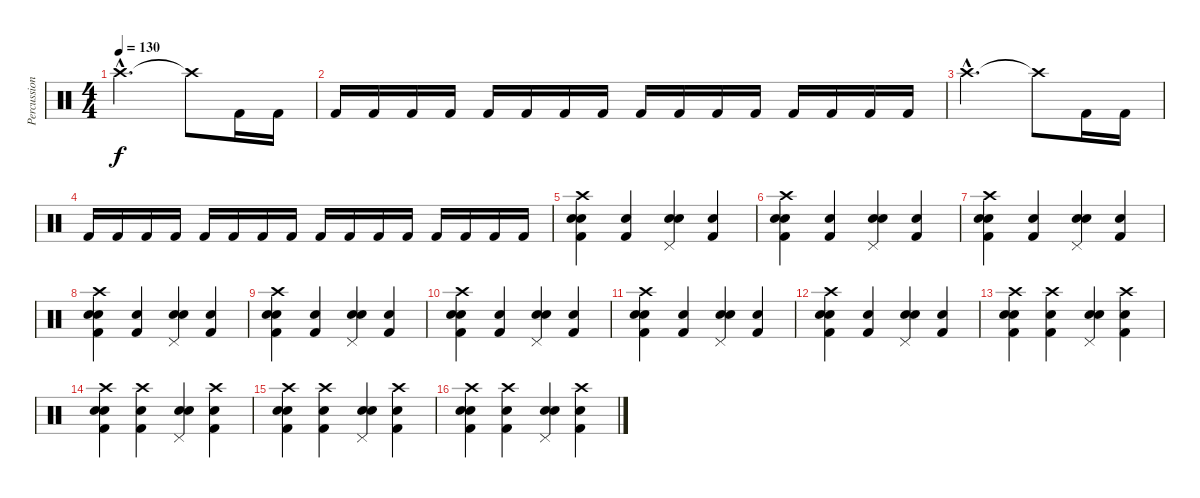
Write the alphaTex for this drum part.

\track ("Percussion" "Percussion") {instrument percussion}
\staff {score}
\articulation defaults
\ts (4 4)
\tempo 130
\clef neutral
\ks c "Crash high (hit)"{hac}.2{d dy f} "Crash high (hit)"{t}.8 "Kick (hit) 2".16 "Kick (hit) 2".16
|
"Kick (hit) 2".16 "Kick (hit) 2".16 "Kick (hit) 2".16 "Kick (hit) 2".16 "Kick (hit) 2".16 "Kick (hit) 2".16 "Kick (hit) 2".16 "Kick (hit) 2".16 "Kick (hit) 2".16 "Kick (hit) 2".16 "Kick (hit) 2".16 "Kick (hit) 2".16 "Kick (hit) 2".16 "Kick (hit) 2".16 "Kick (hit) 2".16 "Kick (hit) 2".16 |
"Crash high (hit)"{hac}.2{d} "Crash high (hit)"{t}.8 "Kick (hit) 2".16 "Kick (hit) 2".16 |
"Kick (hit) 2".16 "Kick (hit) 2".16 "Kick (hit) 2".16 "Kick (hit) 2".16 "Kick (hit) 2".16 "Kick (hit) 2".16 "Kick (hit) 2".16 "Kick (hit) 2".16 "Kick (hit) 2".16 "Kick (hit) 2".16 "Kick (hit) 2".16 "Kick (hit) 2".16 "Kick (hit) 2".16 "Kick (hit) 2".16 "Kick (hit) 2".16 "Kick (hit) 2".16 |
("Crash high (hit)" "Snare (hit) 2" "Kick (hit) 2" "Snare (hit) 2").4 ("Kick (hit) 2" "Snare (hit) 2").4 ("Pedal Hi-Hat (hit)" "Snare (hit) 2" "Snare (hit) 2").4 ("Snare (hit) 2" "Kick (hit) 2").4 |
("Crash high (hit)" "Snare (hit) 2" "Kick (hit) 2" "Snare (hit) 2").4 ("Kick (hit) 2" "Snare (hit) 2").4 ("Pedal Hi-Hat (hit)" "Snare (hit) 2" "Snare (hit) 2").4 ("Snare (hit) 2" "Kick (hit) 2").4 |
("Crash high (hit)" "Snare (hit) 2" "Kick (hit) 2" "Snare (hit) 2").4 ("Kick (hit) 2" "Snare (hit) 2").4 ("Pedal Hi-Hat (hit)" "Snare (hit) 2" "Snare (hit) 2").4 ("Snare (hit) 2" "Kick (hit) 2").4 |
("Crash high (hit)" "Snare (hit) 2" "Kick (hit) 2" "Snare (hit) 2").4 ("Kick (hit) 2" "Snare (hit) 2").4 ("Pedal Hi-Hat (hit)" "Snare (hit) 2" "Snare (hit) 2").4 ("Snare (hit) 2" "Kick (hit) 2").4 |
("Crash high (hit)" "Snare (hit) 2" "Kick (hit) 2" "Snare (hit) 2").4 ("Kick (hit) 2" "Snare (hit) 2").4 ("Pedal Hi-Hat (hit)" "Snare (hit) 2" "Snare (hit) 2").4 ("Snare (hit) 2" "Kick (hit) 2").4 |
("Crash high (hit)" "Snare (hit) 2" "Kick (hit) 2" "Snare (hit) 2").4 ("Kick (hit) 2" "Snare (hit) 2").4 ("Pedal Hi-Hat (hit)" "Snare (hit) 2" "Snare (hit) 2").4 ("Snare (hit) 2" "Kick (hit) 2").4 |
("Crash high (hit)" "Snare (hit) 2" "Kick (hit) 2" "Snare (hit) 2").4 ("Kick (hit) 2" "Snare (hit) 2").4 ("Pedal Hi-Hat (hit)" "Snare (hit) 2" "Snare (hit) 2").4 ("Snare (hit) 2" "Kick (hit) 2").4 |
("Crash high (hit)" "Snare (hit) 2" "Kick (hit) 2" "Snare (hit) 2").4 ("Kick (hit) 2" "Snare (hit) 2").4 ("Pedal Hi-Hat (hit)" "Snare (hit) 2" "Snare (hit) 2").4 ("Snare (hit) 2" "Kick (hit) 2").4 |
("Crash high (hit)" "Snare (hit) 2" "Kick (hit) 2" "Snare (hit) 2").4 ("Crash high (hit)" "Kick (hit) 2" "Snare (hit) 2").4 ("Pedal Hi-Hat (hit)" "Snare (hit) 2" "Snare (hit) 2").4 ("Crash high (hit)" "Snare (hit) 2" "Kick (hit) 2").4 |
("Crash high (hit)" "Snare (hit) 2" "Kick (hit) 2" "Snare (hit) 2").4 ("Crash high (hit)" "Kick (hit) 2" "Snare (hit) 2").4 ("Pedal Hi-Hat (hit)" "Snare (hit) 2" "Snare (hit) 2").4 ("Crash high (hit)" "Snare (hit) 2" "Kick (hit) 2").4 |
("Crash high (hit)" "Snare (hit) 2" "Kick (hit) 2" "Snare (hit) 2").4 ("Crash high (hit)" "Kick (hit) 2" "Snare (hit) 2").4 ("Pedal Hi-Hat (hit)" "Snare (hit) 2" "Snare (hit) 2").4 ("Crash high (hit)" "Snare (hit) 2" "Kick (hit) 2").4 |
("Crash high (hit)" "Snare (hit) 2" "Kick (hit) 2" "Snare (hit) 2").4 ("Crash high (hit)" "Kick (hit) 2" "Snare (hit) 2").4 ("Pedal Hi-Hat (hit)" "Snare (hit) 2" "Snare (hit) 2").4 ("Crash high (hit)" "Snare (hit) 2" "Kick (hit) 2").4
